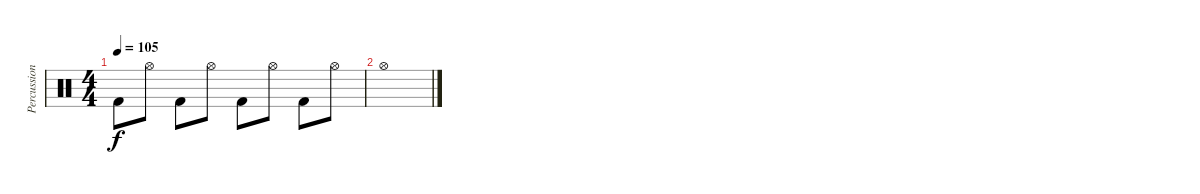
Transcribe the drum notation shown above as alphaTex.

\track ("Percussion" "Percussion") {instrument percussion}
\staff {score}
\articulation defaults
\ts (4 4)
\tempo 105
\clef neutral
\ks c "Kick (hit) 2".8{dy f} "Hi-Hat (open)".8 "Kick (hit) 2".8 "Hi-Hat (open)".8 "Kick (hit) 2".8 "Hi-Hat (open)".8 "Kick (hit) 2".8 "Hi-Hat (open)".8
|
"Hi-Hat (open)".1
